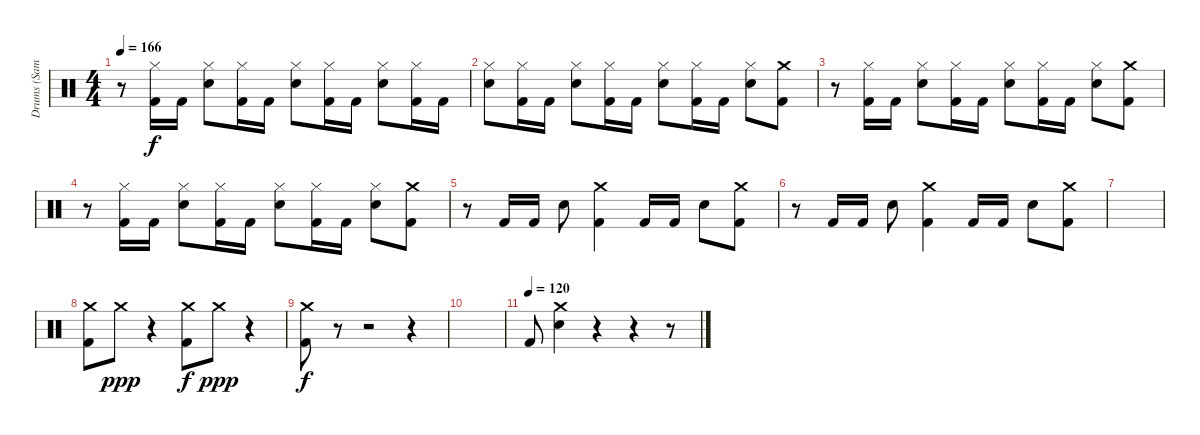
\track ("Drums (Samuelson)" "Drums (Sam") {instrument percussion}
\staff
\articulation defaults
\ts (4 4)
\tempo 166
\clef neutral
\ks c
r.8{dy f} ("Hi-Hat (closed)" "Kick (hit) 2").16 "Kick (hit) 2".16 ("Hi-Hat (closed)" "Electric Snare (hit)").8 ("Hi-Hat (closed)" "Kick (hit) 2").16 "Kick (hit) 2".16 ("Hi-Hat (closed)" "Electric Snare (hit)").8 ("Hi-Hat (closed)" "Kick (hit) 2").16 "Kick (hit) 2".16 ("Hi-Hat (closed)" "Electric Snare (hit)").8 ("Hi-Hat (closed)" "Kick (hit) 2").16 "Kick (hit) 2".16 |
("Hi-Hat (closed)" "Electric Snare (hit)").8 ("Hi-Hat (closed)" "Kick (hit) 2").16 "Kick (hit) 2".16 ("Hi-Hat (closed)" "Electric Snare (hit)").8 ("Hi-Hat (closed)" "Kick (hit) 2").16 "Kick (hit) 2".16 ("Hi-Hat (closed)" "Electric Snare (hit)").8 ("Hi-Hat (closed)" "Kick (hit) 2").16 "Kick (hit) 2".16 ("Hi-Hat (closed)" "Electric Snare (hit)").8 ("Crash medium (hit)" "Kick (hit) 2").8 |
r.8 ("Hi-Hat (closed)" "Kick (hit) 2").16 "Kick (hit) 2".16 ("Hi-Hat (closed)" "Electric Snare (hit)").8 ("Hi-Hat (closed)" "Kick (hit) 2").16 "Kick (hit) 2".16 ("Hi-Hat (closed)" "Electric Snare (hit)").8 ("Hi-Hat (closed)" "Kick (hit) 2").16 "Kick (hit) 2".16 ("Hi-Hat (closed)" "Electric Snare (hit)").8 ("Crash medium (hit)" "Kick (hit) 2").8 |
r.8 ("Hi-Hat (closed)" "Kick (hit) 2").16 "Kick (hit) 2".16 ("Hi-Hat (closed)" "Electric Snare (hit)").8 ("Hi-Hat (closed)" "Kick (hit) 2").16 "Kick (hit) 2".16 ("Hi-Hat (closed)" "Electric Snare (hit)").8 ("Hi-Hat (closed)" "Kick (hit) 2").16 "Kick (hit) 2".16 ("Hi-Hat (closed)" "Electric Snare (hit)").8 ("Crash medium (hit)" "Kick (hit) 2").8 |
r.8 "Kick (hit) 2".16 "Kick (hit) 2".16 "Electric Snare (hit)".8 ("Crash medium (hit)" "Kick (hit) 2").4 "Kick (hit) 2".16 "Kick (hit) 2".16 "Electric Snare (hit)".8 ("Crash medium (hit)" "Kick (hit) 2").8 |
r.8 "Kick (hit) 2".16 "Kick (hit) 2".16 "Electric Snare (hit)".8 ("Crash medium (hit)" "Kick (hit) 2").4 "Kick (hit) 2".16 "Kick (hit) 2".16 "Electric Snare (hit)".8 ("Crash medium (hit)" "Kick (hit) 2").8 |
|
("Crash medium (hit)" "Kick (hit) 2").8 "Crash medium (hit)".8{dy ppp} r.4 ("Crash medium (hit)" "Kick (hit) 2").8{dy f} "Crash medium (hit)".8{dy ppp} r.4 |
("Crash medium (hit)" "Kick (hit) 2").8{dy f} r.8 r.2 r.4 |
|
\tempo (120)
"Kick (hit) 2".8 ("Crash medium (hit)" "Electric Snare (hit)").4 r.4 r.4 r.8
